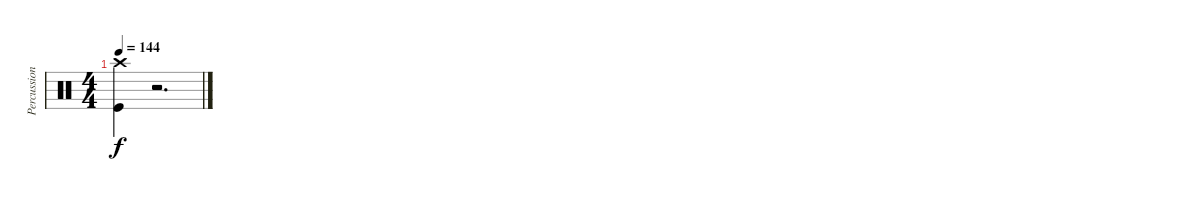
\track ("Percussion" "Percussion") {instrument percussion}
\staff {score}
\articulation defaults
\ts (4 4)
\tempo 144
\clef neutral
\ks c
("Crash high (hit)" "Kick (hit)").4{dy f} r.2{d}
